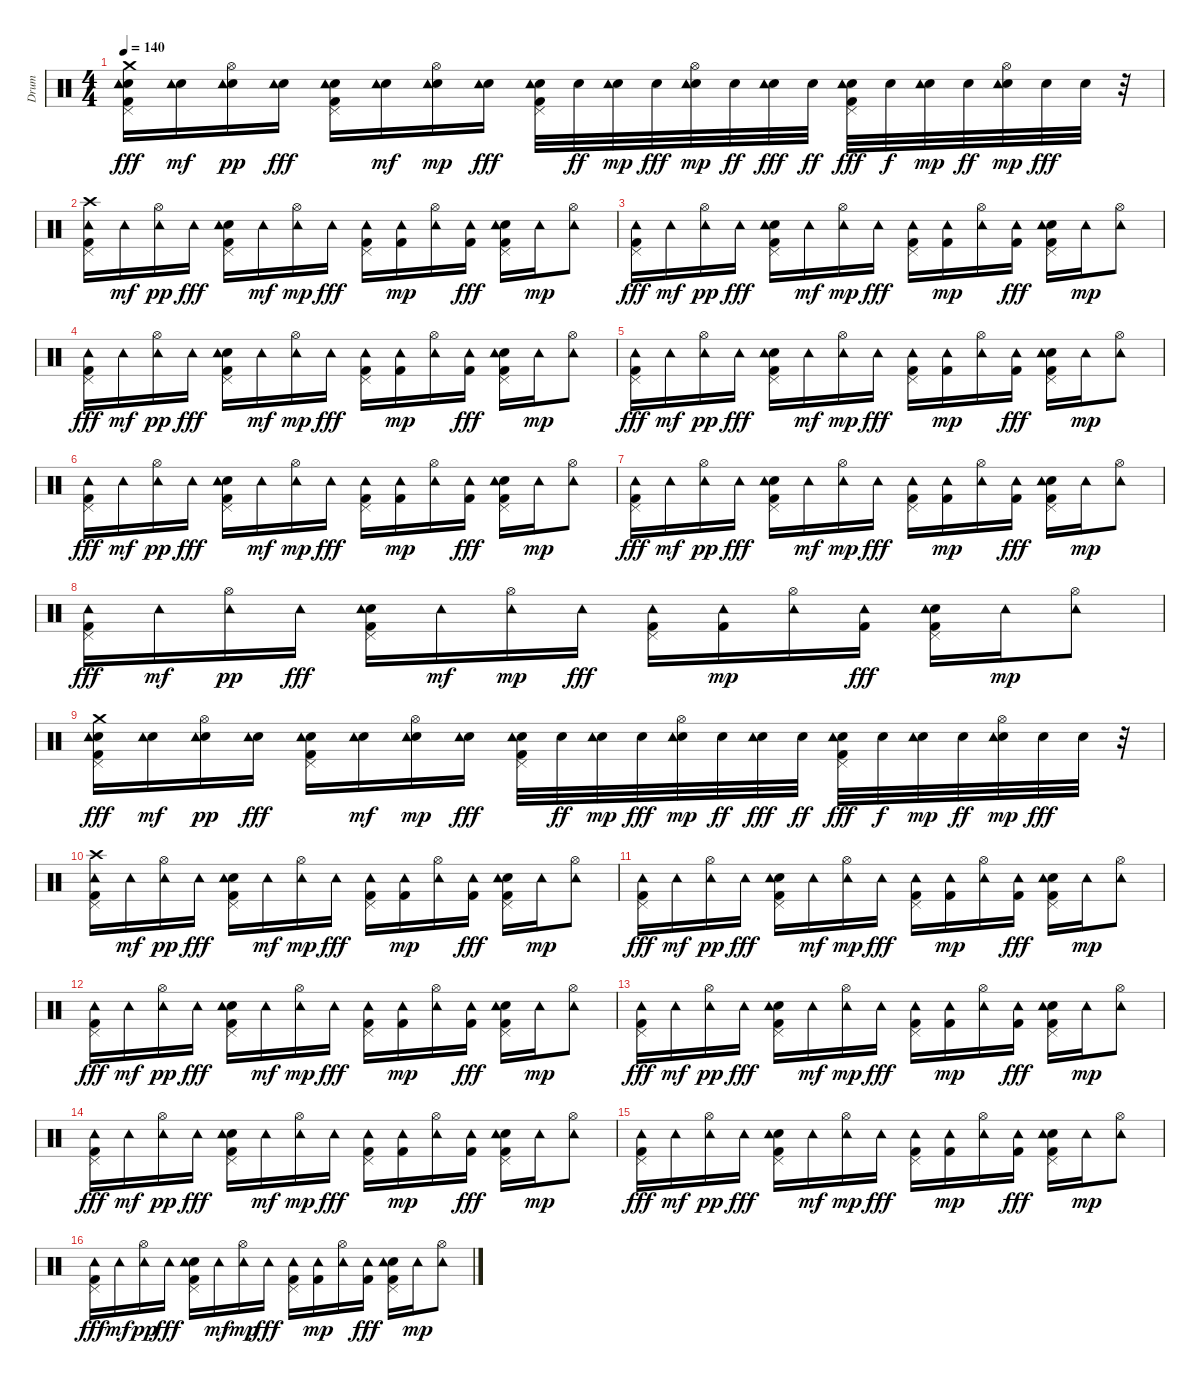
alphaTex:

\track ("Drum" "Drum") {instrument percussion}
\staff {score}
\articulation defaults
\ts (4 4)
\tempo 140
\clef neutral
\ks c
("Snare (hit) 2" "Tambourine (hit)" "Crash medium (hit)" "Pedal Hi-Hat (hit)" "Kick (hit) 2").16{dy fff} ("Snare (hit) 2" "Tambourine (hit)").16{dy mf} ("Snare (hit) 2" "Hi-Hat (open)" "Tambourine (hit)").16{dy pp} ("Snare (hit) 2" "Tambourine (hit)").16{dy fff} ("Snare (hit) 2" "Tambourine (hit)" "Pedal Hi-Hat (hit)" "Kick (hit) 2").16 ("Snare (hit) 2" "Tambourine (hit)").16{dy mf} ("Snare (hit) 2" "Hi-Hat (open)" "Tambourine (hit)").16{dy mp} ("Snare (hit) 2" "Tambourine (hit)").16{dy fff} ("Snare (hit) 2" "Tambourine (hit)" "Pedal Hi-Hat (hit)" "Kick (hit) 2").32 "Snare (hit) 2".32{dy ff} ("Snare (hit) 2" "Tambourine (hit)").32{dy mp} "Snare (hit) 2".32{dy fff} ("Snare (hit) 2" "Hi-Hat (open)" "Tambourine (hit)").32{dy mp} "Snare (hit) 2".32{dy ff} ("Snare (hit) 2" "Tambourine (hit)").32{dy fff} "Snare (hit) 2".32{dy ff} ("Snare (hit) 2" "Tambourine (hit)" "Pedal Hi-Hat (hit)" "Kick (hit) 2").32{dy fff} "Snare (hit) 2".32{dy f} ("Snare (hit) 2" "Tambourine (hit)").32{dy mp} "Snare (hit) 2".32{dy ff} ("Snare (hit) 2" "Hi-Hat (open)" "Tambourine (hit)").32{dy mp} "Snare (hit) 2".32{dy fff} "Snare (hit) 2".32 r.32 |
("Kick (hit) 2" "Pedal Hi-Hat (hit)" "Tambourine (hit)" "Crash high (hit)").16 "Tambourine (hit)".16{dy mf} ("Hi-Hat (open)" "Tambourine (hit)").16{dy pp} "Tambourine (hit)".16{dy fff} ("Snare (hit) 2" "Tambourine (hit)" "Kick (hit) 2" "Pedal Hi-Hat (hit)").16 "Tambourine (hit)".16{dy mf} ("Hi-Hat (open)" "Tambourine (hit)").16{dy mp} "Tambourine (hit)".16{dy fff} ("Tambourine (hit)" "Kick (hit) 2" "Pedal Hi-Hat (hit)").16 ("Kick (hit) 2" "Tambourine (hit)").16{dy mp} ("Hi-Hat (open)" "Tambourine (hit)").16 ("Kick (hit) 2" "Tambourine (hit)").16{dy fff} ("Snare (hit) 2" "Tambourine (hit)" "Kick (hit) 2" "Pedal Hi-Hat (hit)").16 "Tambourine (hit)".16{dy mp} ("Hi-Hat (open)" "Tambourine (hit)").8 |
("Tambourine (hit)" "Kick (hit) 2" "Pedal Hi-Hat (hit)").16{dy fff} "Tambourine (hit)".16{dy mf} ("Hi-Hat (open)" "Tambourine (hit)").16{dy pp} "Tambourine (hit)".16{dy fff} ("Snare (hit) 2" "Tambourine (hit)" "Kick (hit) 2" "Pedal Hi-Hat (hit)").16 "Tambourine (hit)".16{dy mf} ("Hi-Hat (open)" "Tambourine (hit)").16{dy mp} "Tambourine (hit)".16{dy fff} ("Tambourine (hit)" "Kick (hit) 2" "Pedal Hi-Hat (hit)").16 ("Kick (hit) 2" "Tambourine (hit)").16{dy mp} ("Hi-Hat (open)" "Tambourine (hit)").16 ("Kick (hit) 2" "Tambourine (hit)").16{dy fff} ("Snare (hit) 2" "Tambourine (hit)" "Kick (hit) 2" "Pedal Hi-Hat (hit)").16 "Tambourine (hit)".16{dy mp} ("Hi-Hat (open)" "Tambourine (hit)").8 |
("Tambourine (hit)" "Kick (hit) 2" "Pedal Hi-Hat (hit)").16{dy fff} "Tambourine (hit)".16{dy mf} ("Hi-Hat (open)" "Tambourine (hit)").16{dy pp} "Tambourine (hit)".16{dy fff} ("Snare (hit) 2" "Tambourine (hit)" "Kick (hit) 2" "Pedal Hi-Hat (hit)").16 "Tambourine (hit)".16{dy mf} ("Hi-Hat (open)" "Tambourine (hit)").16{dy mp} "Tambourine (hit)".16{dy fff} ("Tambourine (hit)" "Kick (hit) 2" "Pedal Hi-Hat (hit)").16 ("Kick (hit) 2" "Tambourine (hit)").16{dy mp} ("Hi-Hat (open)" "Tambourine (hit)").16 ("Kick (hit) 2" "Tambourine (hit)").16{dy fff} ("Snare (hit) 2" "Tambourine (hit)" "Kick (hit) 2" "Pedal Hi-Hat (hit)").16 "Tambourine (hit)".16{dy mp} ("Hi-Hat (open)" "Tambourine (hit)").8 |
("Tambourine (hit)" "Kick (hit) 2" "Pedal Hi-Hat (hit)").16{dy fff} "Tambourine (hit)".16{dy mf} ("Hi-Hat (open)" "Tambourine (hit)").16{dy pp} "Tambourine (hit)".16{dy fff} ("Snare (hit) 2" "Tambourine (hit)" "Kick (hit) 2" "Pedal Hi-Hat (hit)").16 "Tambourine (hit)".16{dy mf} ("Hi-Hat (open)" "Tambourine (hit)").16{dy mp} "Tambourine (hit)".16{dy fff} ("Tambourine (hit)" "Kick (hit) 2" "Pedal Hi-Hat (hit)").16 ("Kick (hit) 2" "Tambourine (hit)").16{dy mp} ("Hi-Hat (open)" "Tambourine (hit)").16 ("Kick (hit) 2" "Tambourine (hit)").16{dy fff} ("Snare (hit) 2" "Tambourine (hit)" "Kick (hit) 2" "Pedal Hi-Hat (hit)").16 "Tambourine (hit)".16{dy mp} ("Hi-Hat (open)" "Tambourine (hit)").8 |
("Tambourine (hit)" "Kick (hit) 2" "Pedal Hi-Hat (hit)").16{dy fff} "Tambourine (hit)".16{dy mf} ("Hi-Hat (open)" "Tambourine (hit)").16{dy pp} "Tambourine (hit)".16{dy fff} ("Snare (hit) 2" "Tambourine (hit)" "Kick (hit) 2" "Pedal Hi-Hat (hit)").16 "Tambourine (hit)".16{dy mf} ("Hi-Hat (open)" "Tambourine (hit)").16{dy mp} "Tambourine (hit)".16{dy fff} ("Tambourine (hit)" "Kick (hit) 2" "Pedal Hi-Hat (hit)").16 ("Kick (hit) 2" "Tambourine (hit)").16{dy mp} ("Hi-Hat (open)" "Tambourine (hit)").16 ("Kick (hit) 2" "Tambourine (hit)").16{dy fff} ("Snare (hit) 2" "Tambourine (hit)" "Kick (hit) 2" "Pedal Hi-Hat (hit)").16 "Tambourine (hit)".16{dy mp} ("Hi-Hat (open)" "Tambourine (hit)").8 |
("Tambourine (hit)" "Kick (hit) 2" "Pedal Hi-Hat (hit)").16{dy fff} "Tambourine (hit)".16{dy mf} ("Hi-Hat (open)" "Tambourine (hit)").16{dy pp} "Tambourine (hit)".16{dy fff} ("Snare (hit) 2" "Tambourine (hit)" "Kick (hit) 2" "Pedal Hi-Hat (hit)").16 "Tambourine (hit)".16{dy mf} ("Hi-Hat (open)" "Tambourine (hit)").16{dy mp} "Tambourine (hit)".16{dy fff} ("Tambourine (hit)" "Kick (hit) 2" "Pedal Hi-Hat (hit)").16 ("Kick (hit) 2" "Tambourine (hit)").16{dy mp} ("Hi-Hat (open)" "Tambourine (hit)").16 ("Kick (hit) 2" "Tambourine (hit)").16{dy fff} ("Snare (hit) 2" "Tambourine (hit)" "Kick (hit) 2" "Pedal Hi-Hat (hit)").16 "Tambourine (hit)".16{dy mp} ("Hi-Hat (open)" "Tambourine (hit)").8 |
("Tambourine (hit)" "Kick (hit) 2" "Pedal Hi-Hat (hit)").16{dy fff} "Tambourine (hit)".16{dy mf} ("Hi-Hat (open)" "Tambourine (hit)").16{dy pp} "Tambourine (hit)".16{dy fff} ("Snare (hit) 2" "Tambourine (hit)" "Kick (hit) 2" "Pedal Hi-Hat (hit)").16 "Tambourine (hit)".16{dy mf} ("Hi-Hat (open)" "Tambourine (hit)").16{dy mp} "Tambourine (hit)".16{dy fff} ("Tambourine (hit)" "Kick (hit) 2" "Pedal Hi-Hat (hit)").16 ("Kick (hit) 2" "Tambourine (hit)").16{dy mp} ("Hi-Hat (open)" "Tambourine (hit)").16 ("Kick (hit) 2" "Tambourine (hit)").16{dy fff} ("Snare (hit) 2" "Tambourine (hit)" "Kick (hit) 2" "Pedal Hi-Hat (hit)").16 "Tambourine (hit)".16{dy mp} ("Hi-Hat (open)" "Tambourine (hit)").8 |
("Snare (hit) 2" "Tambourine (hit)" "Crash medium (hit)" "Pedal Hi-Hat (hit)" "Kick (hit) 2").16{dy fff} ("Snare (hit) 2" "Tambourine (hit)").16{dy mf} ("Snare (hit) 2" "Hi-Hat (open)" "Tambourine (hit)").16{dy pp} ("Snare (hit) 2" "Tambourine (hit)").16{dy fff} ("Snare (hit) 2" "Tambourine (hit)" "Pedal Hi-Hat (hit)" "Kick (hit) 2").16 ("Snare (hit) 2" "Tambourine (hit)").16{dy mf} ("Snare (hit) 2" "Hi-Hat (open)" "Tambourine (hit)").16{dy mp} ("Snare (hit) 2" "Tambourine (hit)").16{dy fff} ("Snare (hit) 2" "Tambourine (hit)" "Pedal Hi-Hat (hit)" "Kick (hit) 2").32 "Snare (hit) 2".32{dy ff} ("Snare (hit) 2" "Tambourine (hit)").32{dy mp} "Snare (hit) 2".32{dy fff} ("Snare (hit) 2" "Hi-Hat (open)" "Tambourine (hit)").32{dy mp} "Snare (hit) 2".32{dy ff} ("Snare (hit) 2" "Tambourine (hit)").32{dy fff} "Snare (hit) 2".32{dy ff} ("Snare (hit) 2" "Tambourine (hit)" "Pedal Hi-Hat (hit)" "Kick (hit) 2").32{dy fff} "Snare (hit) 2".32{dy f} ("Snare (hit) 2" "Tambourine (hit)").32{dy mp} "Snare (hit) 2".32{dy ff} ("Snare (hit) 2" "Hi-Hat (open)" "Tambourine (hit)").32{dy mp} "Snare (hit) 2".32{dy fff} "Snare (hit) 2".32 r.32 |
("Tambourine (hit)" "Crash high (hit)" "Kick (hit) 2" "Pedal Hi-Hat (hit)").16 "Tambourine (hit)".16{dy mf} ("Hi-Hat (open)" "Tambourine (hit)").16{dy pp} "Tambourine (hit)".16{dy fff} ("Snare (hit) 2" "Tambourine (hit)" "Kick (hit) 2" "Pedal Hi-Hat (hit)").16 "Tambourine (hit)".16{dy mf} ("Hi-Hat (open)" "Tambourine (hit)").16{dy mp} "Tambourine (hit)".16{dy fff} ("Tambourine (hit)" "Kick (hit) 2" "Pedal Hi-Hat (hit)").16 ("Kick (hit) 2" "Tambourine (hit)").16{dy mp} ("Hi-Hat (open)" "Tambourine (hit)").16 ("Kick (hit) 2" "Tambourine (hit)").16{dy fff} ("Snare (hit) 2" "Tambourine (hit)" "Kick (hit) 2" "Pedal Hi-Hat (hit)").16 "Tambourine (hit)".16{dy mp} ("Hi-Hat (open)" "Tambourine (hit)").8 |
("Tambourine (hit)" "Kick (hit) 2" "Pedal Hi-Hat (hit)").16{dy fff} "Tambourine (hit)".16{dy mf} ("Hi-Hat (open)" "Tambourine (hit)").16{dy pp} "Tambourine (hit)".16{dy fff} ("Snare (hit) 2" "Tambourine (hit)" "Kick (hit) 2" "Pedal Hi-Hat (hit)").16 "Tambourine (hit)".16{dy mf} ("Hi-Hat (open)" "Tambourine (hit)").16{dy mp} "Tambourine (hit)".16{dy fff} ("Tambourine (hit)" "Kick (hit) 2" "Pedal Hi-Hat (hit)").16 ("Kick (hit) 2" "Tambourine (hit)").16{dy mp} ("Hi-Hat (open)" "Tambourine (hit)").16 ("Kick (hit) 2" "Tambourine (hit)").16{dy fff} ("Snare (hit) 2" "Tambourine (hit)" "Kick (hit) 2" "Pedal Hi-Hat (hit)").16 "Tambourine (hit)".16{dy mp} ("Hi-Hat (open)" "Tambourine (hit)").8 |
("Tambourine (hit)" "Kick (hit) 2" "Pedal Hi-Hat (hit)").16{dy fff} "Tambourine (hit)".16{dy mf} ("Hi-Hat (open)" "Tambourine (hit)").16{dy pp} "Tambourine (hit)".16{dy fff} ("Snare (hit) 2" "Tambourine (hit)" "Kick (hit) 2" "Pedal Hi-Hat (hit)").16 "Tambourine (hit)".16{dy mf} ("Hi-Hat (open)" "Tambourine (hit)").16{dy mp} "Tambourine (hit)".16{dy fff} ("Tambourine (hit)" "Kick (hit) 2" "Pedal Hi-Hat (hit)").16 ("Kick (hit) 2" "Tambourine (hit)").16{dy mp} ("Hi-Hat (open)" "Tambourine (hit)").16 ("Kick (hit) 2" "Tambourine (hit)").16{dy fff} ("Snare (hit) 2" "Tambourine (hit)" "Kick (hit) 2" "Pedal Hi-Hat (hit)").16 "Tambourine (hit)".16{dy mp} ("Hi-Hat (open)" "Tambourine (hit)").8 |
("Tambourine (hit)" "Kick (hit) 2" "Pedal Hi-Hat (hit)").16{dy fff} "Tambourine (hit)".16{dy mf} ("Hi-Hat (open)" "Tambourine (hit)").16{dy pp} "Tambourine (hit)".16{dy fff} ("Snare (hit) 2" "Tambourine (hit)" "Kick (hit) 2" "Pedal Hi-Hat (hit)").16 "Tambourine (hit)".16{dy mf} ("Hi-Hat (open)" "Tambourine (hit)").16{dy mp} "Tambourine (hit)".16{dy fff} ("Tambourine (hit)" "Kick (hit) 2" "Pedal Hi-Hat (hit)").16 ("Kick (hit) 2" "Tambourine (hit)").16{dy mp} ("Hi-Hat (open)" "Tambourine (hit)").16 ("Kick (hit) 2" "Tambourine (hit)").16{dy fff} ("Snare (hit) 2" "Tambourine (hit)" "Kick (hit) 2" "Pedal Hi-Hat (hit)").16 "Tambourine (hit)".16{dy mp} ("Hi-Hat (open)" "Tambourine (hit)").8 |
("Tambourine (hit)" "Kick (hit) 2" "Pedal Hi-Hat (hit)").16{dy fff} "Tambourine (hit)".16{dy mf} ("Hi-Hat (open)" "Tambourine (hit)").16{dy pp} "Tambourine (hit)".16{dy fff} ("Snare (hit) 2" "Tambourine (hit)" "Kick (hit) 2" "Pedal Hi-Hat (hit)").16 "Tambourine (hit)".16{dy mf} ("Hi-Hat (open)" "Tambourine (hit)").16{dy mp} "Tambourine (hit)".16{dy fff} ("Tambourine (hit)" "Kick (hit) 2" "Pedal Hi-Hat (hit)").16 ("Kick (hit) 2" "Tambourine (hit)").16{dy mp} ("Hi-Hat (open)" "Tambourine (hit)").16 ("Kick (hit) 2" "Tambourine (hit)").16{dy fff} ("Snare (hit) 2" "Tambourine (hit)" "Kick (hit) 2" "Pedal Hi-Hat (hit)").16 "Tambourine (hit)".16{dy mp} ("Hi-Hat (open)" "Tambourine (hit)").8 |
("Tambourine (hit)" "Kick (hit) 2" "Pedal Hi-Hat (hit)").16{dy fff} "Tambourine (hit)".16{dy mf} ("Hi-Hat (open)" "Tambourine (hit)").16{dy pp} "Tambourine (hit)".16{dy fff} ("Snare (hit) 2" "Tambourine (hit)" "Kick (hit) 2" "Pedal Hi-Hat (hit)").16 "Tambourine (hit)".16{dy mf} ("Hi-Hat (open)" "Tambourine (hit)").16{dy mp} "Tambourine (hit)".16{dy fff} ("Tambourine (hit)" "Kick (hit) 2" "Pedal Hi-Hat (hit)").16 ("Kick (hit) 2" "Tambourine (hit)").16{dy mp} ("Hi-Hat (open)" "Tambourine (hit)").16 ("Kick (hit) 2" "Tambourine (hit)").16{dy fff} ("Snare (hit) 2" "Tambourine (hit)" "Kick (hit) 2" "Pedal Hi-Hat (hit)").16 "Tambourine (hit)".16{dy mp} ("Hi-Hat (open)" "Tambourine (hit)").8 |
("Tambourine (hit)" "Kick (hit) 2" "Pedal Hi-Hat (hit)").16{dy fff} "Tambourine (hit)".16{dy mf} ("Hi-Hat (open)" "Tambourine (hit)").16{dy pp} "Tambourine (hit)".16{dy fff} ("Snare (hit) 2" "Tambourine (hit)" "Kick (hit) 2" "Pedal Hi-Hat (hit)").16 "Tambourine (hit)".16{dy mf} ("Hi-Hat (open)" "Tambourine (hit)").16{dy mp} "Tambourine (hit)".16{dy fff} ("Tambourine (hit)" "Kick (hit) 2" "Pedal Hi-Hat (hit)").16 ("Kick (hit) 2" "Tambourine (hit)").16{dy mp} ("Hi-Hat (open)" "Tambourine (hit)").16 ("Kick (hit) 2" "Tambourine (hit)").16{dy fff} ("Snare (hit) 2" "Tambourine (hit)" "Kick (hit) 2" "Pedal Hi-Hat (hit)").16 "Tambourine (hit)".16{dy mp} ("Hi-Hat (open)" "Tambourine (hit)").8
